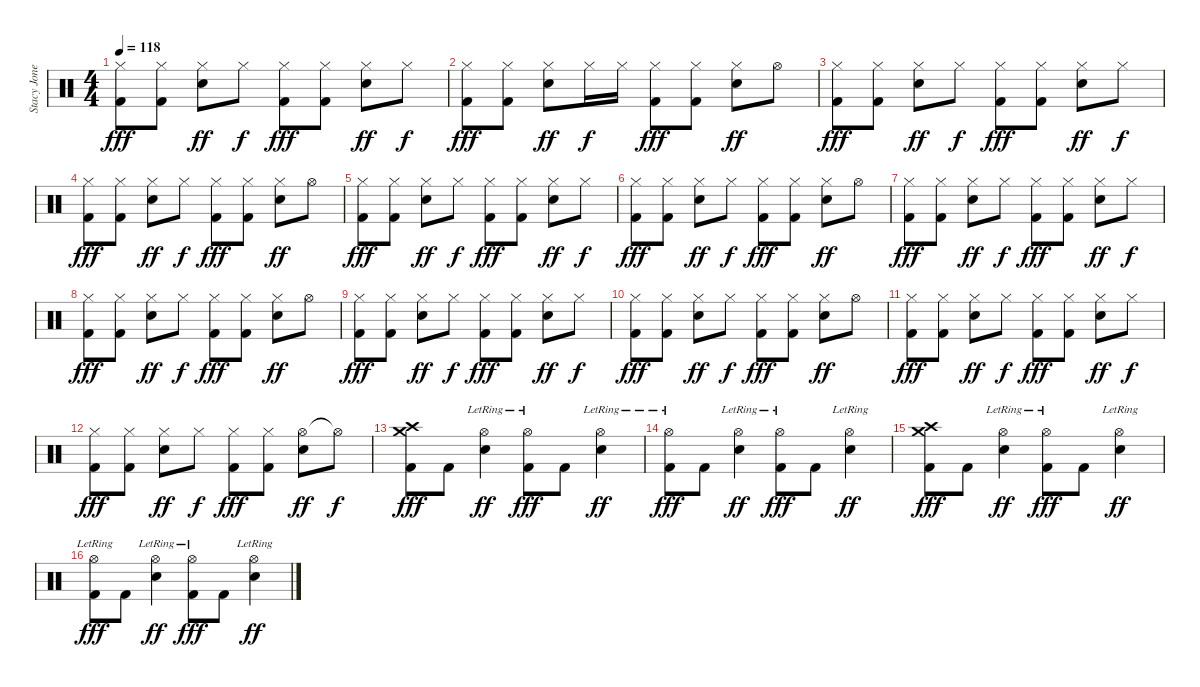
\track ("Stacy Jones: Remo/Sabian HHX/AAX" "Stacy Jone") {instrument percussion}
\staff {score}
\articulation defaults
\ts (4 4)
\tempo 118
\clef neutral
\ks c
("Hi-Hat (closed)" "Kick (hit) 2").8{dy fff} ("Hi-Hat (closed)" "Kick (hit) 2").8 ("Hi-Hat (closed)" "Electric Snare (hit)").8{dy ff} "Hi-Hat (closed)".8{dy f} ("Hi-Hat (closed)" "Kick (hit) 2").8{dy fff} ("Hi-Hat (closed)" "Kick (hit) 2").8 ("Hi-Hat (closed)" "Electric Snare (hit)").8{dy ff} "Hi-Hat (closed)".8{dy f} |
("Hi-Hat (closed)" "Kick (hit) 2").8{dy fff} ("Hi-Hat (closed)" "Kick (hit) 2").8 ("Hi-Hat (closed)" "Electric Snare (hit)").8{dy ff} "Hi-Hat (closed)".16{dy f} "Hi-Hat (closed)".16 ("Hi-Hat (closed)" "Kick (hit) 2").8{dy fff} ("Hi-Hat (closed)" "Kick (hit) 2").8 ("Hi-Hat (closed)" "Electric Snare (hit)").8{dy ff} "Hi-Hat (open)".8 |
("Hi-Hat (closed)" "Kick (hit) 2").8{dy fff} ("Hi-Hat (closed)" "Kick (hit) 2").8 ("Hi-Hat (closed)" "Electric Snare (hit)").8{dy ff} "Hi-Hat (closed)".8{dy f} ("Hi-Hat (closed)" "Kick (hit) 2").8{dy fff} ("Hi-Hat (closed)" "Kick (hit) 2").8 ("Hi-Hat (closed)" "Electric Snare (hit)").8{dy ff} "Hi-Hat (closed)".8{dy f} |
("Hi-Hat (closed)" "Kick (hit) 2").8{dy fff} ("Hi-Hat (closed)" "Kick (hit) 2").8 ("Hi-Hat (closed)" "Electric Snare (hit)").8{dy ff} "Hi-Hat (closed)".8{dy f} ("Hi-Hat (closed)" "Kick (hit) 2").8{dy fff} ("Hi-Hat (closed)" "Kick (hit) 2").8 ("Hi-Hat (closed)" "Electric Snare (hit)").8{dy ff} "Hi-Hat (open)".8 |
("Hi-Hat (closed)" "Kick (hit) 2").8{dy fff} ("Hi-Hat (closed)" "Kick (hit) 2").8 ("Hi-Hat (closed)" "Electric Snare (hit)").8{dy ff} "Hi-Hat (closed)".8{dy f} ("Hi-Hat (closed)" "Kick (hit) 2").8{dy fff} ("Hi-Hat (closed)" "Kick (hit) 2").8 ("Hi-Hat (closed)" "Electric Snare (hit)").8{dy ff} "Hi-Hat (closed)".8{dy f} |
("Hi-Hat (closed)" "Kick (hit) 2").8{dy fff} ("Hi-Hat (closed)" "Kick (hit) 2").8 ("Hi-Hat (closed)" "Electric Snare (hit)").8{dy ff} "Hi-Hat (closed)".8{dy f} ("Hi-Hat (closed)" "Kick (hit) 2").8{dy fff} ("Hi-Hat (closed)" "Kick (hit) 2").8 ("Hi-Hat (closed)" "Electric Snare (hit)").8{dy ff} "Hi-Hat (open)".8 |
("Hi-Hat (closed)" "Kick (hit) 2").8{dy fff} ("Hi-Hat (closed)" "Kick (hit) 2").8 ("Hi-Hat (closed)" "Electric Snare (hit)").8{dy ff} "Hi-Hat (closed)".8{dy f} ("Hi-Hat (closed)" "Kick (hit) 2").8{dy fff} ("Hi-Hat (closed)" "Kick (hit) 2").8 ("Hi-Hat (closed)" "Electric Snare (hit)").8{dy ff} "Hi-Hat (closed)".8{dy f} |
("Hi-Hat (closed)" "Kick (hit) 2").8{dy fff} ("Hi-Hat (closed)" "Kick (hit) 2").8 ("Hi-Hat (closed)" "Electric Snare (hit)").8{dy ff} "Hi-Hat (closed)".8{dy f} ("Hi-Hat (closed)" "Kick (hit) 2").8{dy fff} ("Hi-Hat (closed)" "Kick (hit) 2").8 ("Hi-Hat (closed)" "Electric Snare (hit)").8{dy ff} "Hi-Hat (open)".8 |
("Hi-Hat (closed)" "Kick (hit) 2").8{dy fff} ("Hi-Hat (closed)" "Kick (hit) 2").8 ("Hi-Hat (closed)" "Electric Snare (hit)").8{dy ff} "Hi-Hat (closed)".8{dy f} ("Hi-Hat (closed)" "Kick (hit) 2").8{dy fff} ("Hi-Hat (closed)" "Kick (hit) 2").8 ("Hi-Hat (closed)" "Electric Snare (hit)").8{dy ff} "Hi-Hat (closed)".8{dy f} |
("Hi-Hat (closed)" "Kick (hit) 2").8{dy fff} ("Hi-Hat (closed)" "Kick (hit) 2").8 ("Hi-Hat (closed)" "Electric Snare (hit)").8{dy ff} "Hi-Hat (closed)".8{dy f} ("Hi-Hat (closed)" "Kick (hit) 2").8{dy fff} ("Hi-Hat (closed)" "Kick (hit) 2").8 ("Hi-Hat (closed)" "Electric Snare (hit)").8{dy ff} "Hi-Hat (open)".8 |
("Hi-Hat (closed)" "Kick (hit) 2").8{dy fff} ("Hi-Hat (closed)" "Kick (hit) 2").8 ("Hi-Hat (closed)" "Electric Snare (hit)").8{dy ff} "Hi-Hat (closed)".8{dy f} ("Hi-Hat (closed)" "Kick (hit) 2").8{dy fff} ("Hi-Hat (closed)" "Kick (hit) 2").8 ("Hi-Hat (closed)" "Electric Snare (hit)").8{dy ff} "Hi-Hat (closed)".8{dy f} |
("Hi-Hat (closed)" "Kick (hit) 2").8{dy fff} ("Hi-Hat (closed)" "Kick (hit) 2").8 ("Hi-Hat (closed)" "Electric Snare (hit)").8{dy ff} "Hi-Hat (closed)".8{dy f} ("Hi-Hat (closed)" "Kick (hit) 2").8{dy fff} ("Hi-Hat (closed)" "Kick (hit) 2").8 ("Hi-Hat (open)" "Electric Snare (hit)").8{dy ff} "Hi-Hat (open)"{t}.8{dy f} |
("Crash high (hit)" "Crash medium (hit)" "Kick (hit) 2").8{dy fff} "Kick (hit) 2".8 ("Hi-Hat (open)"{lr} "Electric Snare (hit)").4{dy ff} ("Hi-Hat (open)"{lr} "Kick (hit) 2").8{dy fff} "Kick (hit) 2".8 ("Hi-Hat (open)"{lr} "Electric Snare (hit)").4{dy ff} |
("Hi-Hat (open)"{lr} "Kick (hit) 2").8{dy fff} "Kick (hit) 2".8 ("Hi-Hat (open)"{lr} "Electric Snare (hit)").4{dy ff} ("Hi-Hat (open)"{lr} "Kick (hit) 2").8{dy fff} "Kick (hit) 2".8 ("Hi-Hat (open)"{lr} "Electric Snare (hit)").4{dy ff} |
("Crash high (hit)" "Crash medium (hit)" "Kick (hit) 2").8{dy fff} "Kick (hit) 2".8 ("Hi-Hat (open)"{lr} "Electric Snare (hit)").4{dy ff} ("Hi-Hat (open)"{lr} "Kick (hit) 2").8{dy fff} "Kick (hit) 2".8 ("Hi-Hat (open)"{lr} "Electric Snare (hit)").4{dy ff} |
("Hi-Hat (open)"{lr} "Kick (hit) 2").8{dy fff} "Kick (hit) 2".8 ("Hi-Hat (open)"{lr} "Electric Snare (hit)").4{dy ff} ("Hi-Hat (open)"{lr} "Kick (hit) 2").8{dy fff} "Kick (hit) 2".8 ("Hi-Hat (open)"{lr} "Electric Snare (hit)").4{dy ff}
